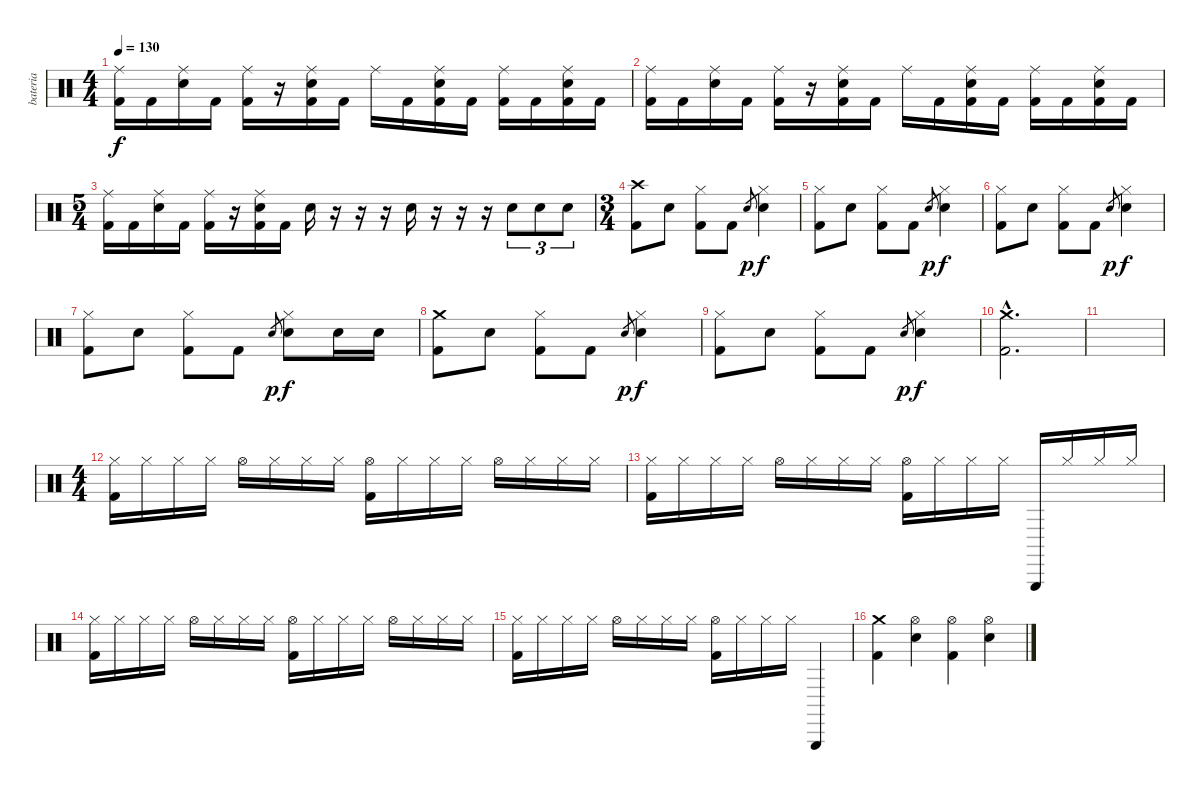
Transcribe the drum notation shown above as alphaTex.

\track ("bateria" "bateria") {instrument percussion}
\staff {score}
\articulation defaults
\ts (4 4)
\tempo 130
\clef neutral
\ks c
("Ride (middle)" "Kick (hit) 2").16{dy f} "Kick (hit) 2".16 ("Ride (middle)" "Electric Snare (hit)").16 "Kick (hit) 2".16 ("Ride (middle)" "Kick (hit) 2").16 r.16 ("Ride (middle)" "Electric Snare (hit)" "Kick (hit) 2").16 "Kick (hit) 2".16 "Ride (middle)".16 "Kick (hit) 2".16 ("Ride (middle)" "Electric Snare (hit)" "Kick (hit) 2").16 "Kick (hit) 2".16 ("Ride (middle)" "Kick (hit) 2").16 "Kick (hit) 2".16 ("Ride (middle)" "Electric Snare (hit)" "Kick (hit) 2").16 "Kick (hit) 2".16 |
("Ride (middle)" "Kick (hit) 2").16 "Kick (hit) 2".16 ("Ride (middle)" "Electric Snare (hit)").16 "Kick (hit) 2".16 ("Ride (middle)" "Kick (hit) 2").16 r.16 ("Ride (middle)" "Electric Snare (hit)" "Kick (hit) 2").16 "Kick (hit) 2".16 "Ride (middle)".16 "Kick (hit) 2".16 ("Ride (middle)" "Electric Snare (hit)" "Kick (hit) 2").16 "Kick (hit) 2".16 ("Ride (middle)" "Kick (hit) 2").16 "Kick (hit) 2".16 ("Ride (middle)" "Electric Snare (hit)" "Kick (hit) 2").16 "Kick (hit) 2".16 |
\ts (5 4)
("Ride (middle)" "Kick (hit) 2").16 "Kick (hit) 2".16 ("Ride (middle)" "Electric Snare (hit)").16 "Kick (hit) 2".16 ("Ride (middle)" "Kick (hit) 2").16 r.16 ("Ride (middle)" "Electric Snare (hit)" "Kick (hit) 2").16 "Kick (hit) 2".16 "Electric Snare (hit)".16 r.16 r.16 r.16 "Electric Snare (hit)".16 r.16 r.16 r.16 "Electric Snare (hit)".8{tu (3 2)} "Electric Snare (hit)".8{tu (3 2)} "Electric Snare (hit)".8{tu (3 2)} |
\ts (3 4)
("Crash high (hit)" "Kick (hit) 2").8 "Electric Snare (hit)".8 ("Hi-Hat (closed)" "Kick (hit) 2").8 "Kick (hit) 2".8 "Electric Snare (hit)".8{gr dy p} ("Hi-Hat (closed)" "Electric Snare (hit)").4{dy f} |
("Hi-Hat (closed)" "Kick (hit) 2").8 "Electric Snare (hit)".8 ("Hi-Hat (closed)" "Kick (hit) 2").8 "Kick (hit) 2".8 "Electric Snare (hit)".8{gr dy p} ("Hi-Hat (closed)" "Electric Snare (hit)").4{dy f} |
("Hi-Hat (closed)" "Kick (hit) 2").8 "Electric Snare (hit)".8 ("Hi-Hat (closed)" "Kick (hit) 2").8 "Kick (hit) 2".8 "Electric Snare (hit)".8{gr dy p} ("Hi-Hat (closed)" "Electric Snare (hit)").4{dy f} |
("Hi-Hat (closed)" "Kick (hit) 2").8 "Electric Snare (hit)".8 ("Hi-Hat (closed)" "Kick (hit) 2").8 "Kick (hit) 2".8 "Electric Snare (hit)".8{gr dy p} ("Hi-Hat (closed)" "Electric Snare (hit)").8{dy f} "Electric Snare (hit)".16 "Electric Snare (hit)".16 |
("Crash medium (hit)" "Kick (hit) 2").8 "Electric Snare (hit)".8 ("Hi-Hat (closed)" "Kick (hit) 2").8 "Kick (hit) 2".8 "Electric Snare (hit)".8{gr dy p} ("Hi-Hat (closed)" "Electric Snare (hit)").4{dy f} |
("Hi-Hat (closed)" "Kick (hit) 2").8 "Electric Snare (hit)".8 ("Hi-Hat (closed)" "Kick (hit) 2").8 "Kick (hit) 2".8 "Electric Snare (hit)".8{gr dy p} ("Hi-Hat (closed)" "Electric Snare (hit)").4{dy f} |
("Crash medium (hit)"{hac} "Kick (hit) 2"{hac}).2{d} |
|
\ts (4 4)
("Hi-Hat (closed)" "Kick (hit) 2").16 "Hi-Hat (closed)".16 "Hi-Hat (closed)".16 "Hi-Hat (closed)".16 "Hi-Hat (open)".16 "Hi-Hat (closed)".16 "Hi-Hat (closed)".16 "Hi-Hat (closed)".16 ("Hi-Hat (open)" "Kick (hit) 2").16 "Hi-Hat (closed)".16 "Hi-Hat (closed)".16 "Hi-Hat (closed)".16 "Hi-Hat (open)".16 "Hi-Hat (closed)".16 "Hi-Hat (closed)".16 "Hi-Hat (closed)".16 |
("Hi-Hat (closed)" "Kick (hit) 2").16 "Hi-Hat (closed)".16 "Hi-Hat (closed)".16 "Hi-Hat (closed)".16 "Hi-Hat (open)".16 "Hi-Hat (closed)".16 "Hi-Hat (closed)".16 "Hi-Hat (closed)".16 ("Hi-Hat (open)" "Kick (hit) 2").16 "Hi-Hat (closed)".16 "Hi-Hat (closed)".16 "Hi-Hat (closed)".16 "Triangle (hit)".16 "Hi-Hat (closed)".16 "Hi-Hat (closed)".16 "Hi-Hat (closed)".16 |
("Hi-Hat (closed)" "Kick (hit) 2").16 "Hi-Hat (closed)".16 "Hi-Hat (closed)".16 "Hi-Hat (closed)".16 "Hi-Hat (open)".16 "Hi-Hat (closed)".16 "Hi-Hat (closed)".16 "Hi-Hat (closed)".16 ("Hi-Hat (open)" "Kick (hit) 2").16 "Hi-Hat (closed)".16 "Hi-Hat (closed)".16 "Hi-Hat (closed)".16 "Hi-Hat (open)".16 "Hi-Hat (closed)".16 "Hi-Hat (closed)".16 "Hi-Hat (closed)".16 |
("Hi-Hat (closed)" "Kick (hit) 2").16 "Hi-Hat (closed)".16 "Hi-Hat (closed)".16 "Hi-Hat (closed)".16 "Hi-Hat (open)".16 "Hi-Hat (closed)".16 "Hi-Hat (closed)".16 "Hi-Hat (closed)".16 ("Hi-Hat (open)" "Kick (hit) 2").16 "Hi-Hat (closed)".16 "Hi-Hat (closed)".16 "Hi-Hat (closed)".16 "Triangle (hit)".4 |
("Crash medium (hit)" "Kick (hit) 2").4 ("Hi-Hat (open)" "Electric Snare (hit)").4 ("Hi-Hat (open)" "Kick (hit) 2").4 ("Hi-Hat (open)" "Electric Snare (hit)").4
